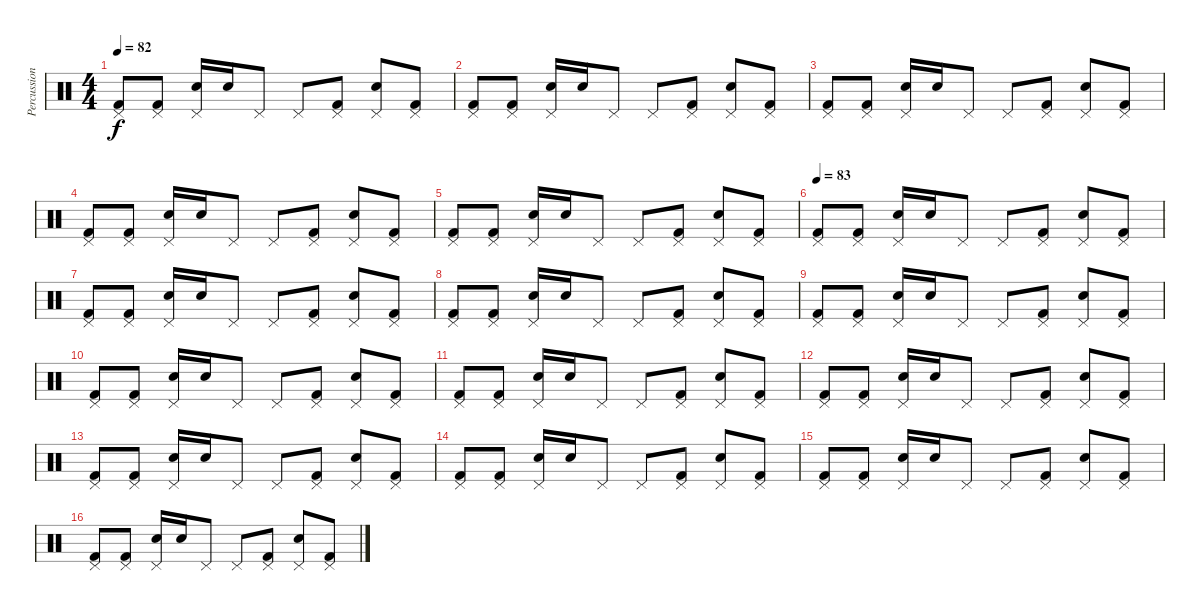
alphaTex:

\track ("Percussion" "Percussion") {instrument percussion}
\staff {score}
\articulation defaults
\ts (4 4)
\tempo 82
\clef neutral
\ks c
("Pedal Hi-Hat (hit)" "Kick (hit) 2").8{dy f} ("Pedal Hi-Hat (hit)" "Kick (hit) 2").8 ("Pedal Hi-Hat (hit)" "Snare (hit) 2").16 "Snare (hit) 2".16 "Pedal Hi-Hat (hit)".8 "Pedal Hi-Hat (hit)".8 ("Pedal Hi-Hat (hit)" "Kick (hit) 2").8 ("Pedal Hi-Hat (hit)" "Snare (hit) 2").8 ("Pedal Hi-Hat (hit)" "Kick (hit) 2").8 |
("Pedal Hi-Hat (hit)" "Kick (hit) 2").8 ("Pedal Hi-Hat (hit)" "Kick (hit) 2").8 ("Pedal Hi-Hat (hit)" "Snare (hit) 2").16 "Snare (hit) 2".16 "Pedal Hi-Hat (hit)".8 "Pedal Hi-Hat (hit)".8 ("Pedal Hi-Hat (hit)" "Kick (hit) 2").8 ("Pedal Hi-Hat (hit)" "Snare (hit) 2").8 ("Pedal Hi-Hat (hit)" "Kick (hit) 2").8 |
("Pedal Hi-Hat (hit)" "Kick (hit) 2").8 ("Pedal Hi-Hat (hit)" "Kick (hit) 2").8 ("Pedal Hi-Hat (hit)" "Snare (hit) 2").16 "Snare (hit) 2".16 "Pedal Hi-Hat (hit)".8 "Pedal Hi-Hat (hit)".8 ("Pedal Hi-Hat (hit)" "Kick (hit) 2").8 ("Pedal Hi-Hat (hit)" "Snare (hit) 2").8 ("Pedal Hi-Hat (hit)" "Kick (hit) 2").8 |
("Pedal Hi-Hat (hit)" "Kick (hit) 2").8 ("Pedal Hi-Hat (hit)" "Kick (hit) 2").8 ("Pedal Hi-Hat (hit)" "Snare (hit) 2").16 "Snare (hit) 2".16 "Pedal Hi-Hat (hit)".8 "Pedal Hi-Hat (hit)".8 ("Pedal Hi-Hat (hit)" "Kick (hit) 2").8 ("Pedal Hi-Hat (hit)" "Snare (hit) 2").8 ("Pedal Hi-Hat (hit)" "Kick (hit) 2").8 |
("Pedal Hi-Hat (hit)" "Kick (hit) 2").8 ("Pedal Hi-Hat (hit)" "Kick (hit) 2").8 ("Pedal Hi-Hat (hit)" "Snare (hit) 2").16 "Snare (hit) 2".16 "Pedal Hi-Hat (hit)".8 "Pedal Hi-Hat (hit)".8 ("Pedal Hi-Hat (hit)" "Kick (hit) 2").8 ("Pedal Hi-Hat (hit)" "Snare (hit) 2").8 ("Pedal Hi-Hat (hit)" "Kick (hit) 2").8 |
\tempo 83
("Pedal Hi-Hat (hit)" "Kick (hit) 2").8 ("Pedal Hi-Hat (hit)" "Kick (hit) 2").8 ("Pedal Hi-Hat (hit)" "Snare (hit) 2").16 "Snare (hit) 2".16 "Pedal Hi-Hat (hit)".8 "Pedal Hi-Hat (hit)".8 ("Pedal Hi-Hat (hit)" "Kick (hit) 2").8 ("Pedal Hi-Hat (hit)" "Snare (hit) 2").8 ("Pedal Hi-Hat (hit)" "Kick (hit) 2").8 |
("Pedal Hi-Hat (hit)" "Kick (hit) 2").8 ("Pedal Hi-Hat (hit)" "Kick (hit) 2").8 ("Pedal Hi-Hat (hit)" "Snare (hit) 2").16 "Snare (hit) 2".16 "Pedal Hi-Hat (hit)".8 "Pedal Hi-Hat (hit)".8 ("Pedal Hi-Hat (hit)" "Kick (hit) 2").8 ("Pedal Hi-Hat (hit)" "Snare (hit) 2").8 ("Pedal Hi-Hat (hit)" "Kick (hit) 2").8 |
("Pedal Hi-Hat (hit)" "Kick (hit) 2").8 ("Pedal Hi-Hat (hit)" "Kick (hit) 2").8 ("Pedal Hi-Hat (hit)" "Snare (hit) 2").16 "Snare (hit) 2".16 "Pedal Hi-Hat (hit)".8 "Pedal Hi-Hat (hit)".8 ("Pedal Hi-Hat (hit)" "Kick (hit) 2").8 ("Pedal Hi-Hat (hit)" "Snare (hit) 2").8 ("Pedal Hi-Hat (hit)" "Kick (hit) 2").8 |
("Pedal Hi-Hat (hit)" "Kick (hit) 2").8 ("Pedal Hi-Hat (hit)" "Kick (hit) 2").8 ("Pedal Hi-Hat (hit)" "Snare (hit) 2").16 "Snare (hit) 2".16 "Pedal Hi-Hat (hit)".8 "Pedal Hi-Hat (hit)".8 ("Pedal Hi-Hat (hit)" "Kick (hit) 2").8 ("Pedal Hi-Hat (hit)" "Snare (hit) 2").8 ("Pedal Hi-Hat (hit)" "Kick (hit) 2").8 |
("Pedal Hi-Hat (hit)" "Kick (hit) 2").8 ("Pedal Hi-Hat (hit)" "Kick (hit) 2").8 ("Pedal Hi-Hat (hit)" "Snare (hit) 2").16 "Snare (hit) 2".16 "Pedal Hi-Hat (hit)".8 "Pedal Hi-Hat (hit)".8 ("Pedal Hi-Hat (hit)" "Kick (hit) 2").8 ("Pedal Hi-Hat (hit)" "Snare (hit) 2").8 ("Pedal Hi-Hat (hit)" "Kick (hit) 2").8 |
("Pedal Hi-Hat (hit)" "Kick (hit) 2").8 ("Pedal Hi-Hat (hit)" "Kick (hit) 2").8 ("Pedal Hi-Hat (hit)" "Snare (hit) 2").16 "Snare (hit) 2".16 "Pedal Hi-Hat (hit)".8 "Pedal Hi-Hat (hit)".8 ("Pedal Hi-Hat (hit)" "Kick (hit) 2").8 ("Pedal Hi-Hat (hit)" "Snare (hit) 2").8 ("Pedal Hi-Hat (hit)" "Kick (hit) 2").8 |
("Pedal Hi-Hat (hit)" "Kick (hit) 2").8 ("Pedal Hi-Hat (hit)" "Kick (hit) 2").8 ("Pedal Hi-Hat (hit)" "Snare (hit) 2").16 "Snare (hit) 2".16 "Pedal Hi-Hat (hit)".8 "Pedal Hi-Hat (hit)".8 ("Pedal Hi-Hat (hit)" "Kick (hit) 2").8 ("Pedal Hi-Hat (hit)" "Snare (hit) 2").8 ("Pedal Hi-Hat (hit)" "Kick (hit) 2").8 |
("Pedal Hi-Hat (hit)" "Kick (hit) 2").8 ("Pedal Hi-Hat (hit)" "Kick (hit) 2").8 ("Pedal Hi-Hat (hit)" "Snare (hit) 2").16 "Snare (hit) 2".16 "Pedal Hi-Hat (hit)".8 "Pedal Hi-Hat (hit)".8 ("Pedal Hi-Hat (hit)" "Kick (hit) 2").8 ("Pedal Hi-Hat (hit)" "Snare (hit) 2").8 ("Pedal Hi-Hat (hit)" "Kick (hit) 2").8 |
("Pedal Hi-Hat (hit)" "Kick (hit) 2").8 ("Pedal Hi-Hat (hit)" "Kick (hit) 2").8 ("Pedal Hi-Hat (hit)" "Snare (hit) 2").16 "Snare (hit) 2".16 "Pedal Hi-Hat (hit)".8 "Pedal Hi-Hat (hit)".8 ("Pedal Hi-Hat (hit)" "Kick (hit) 2").8 ("Pedal Hi-Hat (hit)" "Snare (hit) 2").8 ("Pedal Hi-Hat (hit)" "Kick (hit) 2").8 |
("Pedal Hi-Hat (hit)" "Kick (hit) 2").8 ("Pedal Hi-Hat (hit)" "Kick (hit) 2").8 ("Pedal Hi-Hat (hit)" "Snare (hit) 2").16 "Snare (hit) 2".16 "Pedal Hi-Hat (hit)".8 "Pedal Hi-Hat (hit)".8 ("Pedal Hi-Hat (hit)" "Kick (hit) 2").8 ("Pedal Hi-Hat (hit)" "Snare (hit) 2").8 ("Pedal Hi-Hat (hit)" "Kick (hit) 2").8 |
("Pedal Hi-Hat (hit)" "Kick (hit) 2").8 ("Pedal Hi-Hat (hit)" "Kick (hit) 2").8 ("Pedal Hi-Hat (hit)" "Snare (hit) 2").16 "Snare (hit) 2".16 "Pedal Hi-Hat (hit)".8 "Pedal Hi-Hat (hit)".8 ("Pedal Hi-Hat (hit)" "Kick (hit) 2").8 ("Pedal Hi-Hat (hit)" "Snare (hit) 2").8 ("Pedal Hi-Hat (hit)" "Kick (hit) 2").8
